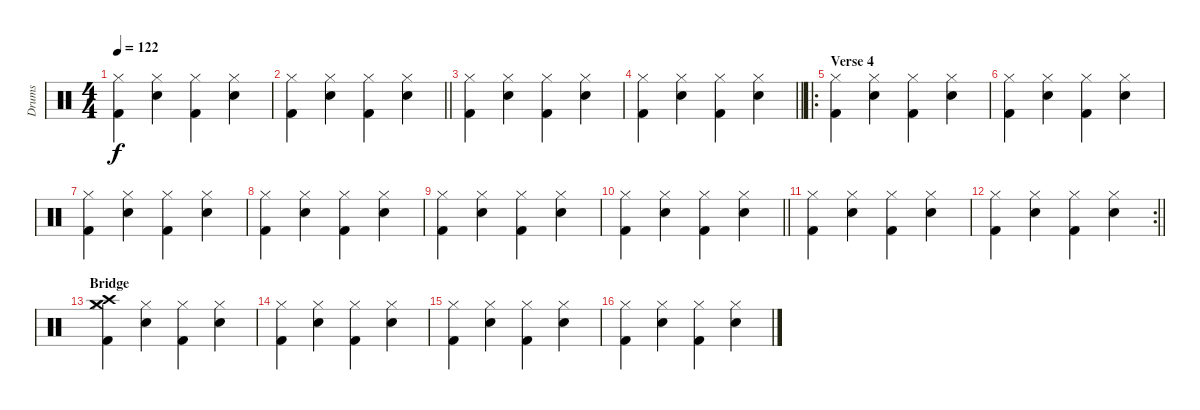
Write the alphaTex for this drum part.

\track ("Drums" "Drums") {instrument percussion}
\staff {score}
\articulation defaults
\ts (4 4)
\tempo 122
\clef neutral
\ks c
("Hi-Hat (closed)" "Kick (hit) 2").4{dy f} ("Hi-Hat (closed)" "Snare (hit) 2").4 ("Hi-Hat (closed)" "Kick (hit) 2").4 ("Hi-Hat (closed)" "Snare (hit) 2").4 |
\barLineRight lightlight
("Hi-Hat (closed)" "Kick (hit) 2").4 ("Hi-Hat (closed)" "Snare (hit) 2").4 ("Hi-Hat (closed)" "Kick (hit) 2").4 ("Hi-Hat (closed)" "Snare (hit) 2").4 |
("Hi-Hat (closed)" "Kick (hit) 2").4 ("Hi-Hat (closed)" "Snare (hit) 2").4 ("Hi-Hat (closed)" "Kick (hit) 2").4 ("Hi-Hat (closed)" "Snare (hit) 2").4 |
\barLineRight lightlight
("Hi-Hat (closed)" "Kick (hit) 2").4 ("Hi-Hat (closed)" "Snare (hit) 2").4 ("Hi-Hat (closed)" "Kick (hit) 2").4 ("Hi-Hat (closed)" "Snare (hit) 2").4 |
\ro
\section ("" "Verse 4")
("Hi-Hat (closed)" "Kick (hit) 2").4 ("Hi-Hat (closed)" "Snare (hit) 2").4 ("Hi-Hat (closed)" "Kick (hit) 2").4 ("Hi-Hat (closed)" "Snare (hit) 2").4 |
("Hi-Hat (closed)" "Kick (hit) 2").4 ("Hi-Hat (closed)" "Snare (hit) 2").4 ("Hi-Hat (closed)" "Kick (hit) 2").4 ("Hi-Hat (closed)" "Snare (hit) 2").4 |
("Hi-Hat (closed)" "Kick (hit) 2").4 ("Hi-Hat (closed)" "Snare (hit) 2").4 ("Hi-Hat (closed)" "Kick (hit) 2").4 ("Hi-Hat (closed)" "Snare (hit) 2").4 |
("Hi-Hat (closed)" "Kick (hit) 2").4 ("Hi-Hat (closed)" "Snare (hit) 2").4 ("Hi-Hat (closed)" "Kick (hit) 2").4 ("Hi-Hat (closed)" "Snare (hit) 2").4 |
("Hi-Hat (closed)" "Kick (hit) 2").4 ("Hi-Hat (closed)" "Snare (hit) 2").4 ("Hi-Hat (closed)" "Kick (hit) 2").4 ("Hi-Hat (closed)" "Snare (hit) 2").4 |
\barLineRight lightlight
("Hi-Hat (closed)" "Kick (hit) 2").4 ("Hi-Hat (closed)" "Snare (hit) 2").4 ("Hi-Hat (closed)" "Kick (hit) 2").4 ("Hi-Hat (closed)" "Snare (hit) 2").4 |
("Hi-Hat (closed)" "Kick (hit) 2").4 ("Hi-Hat (closed)" "Snare (hit) 2").4 ("Hi-Hat (closed)" "Kick (hit) 2").4 ("Hi-Hat (closed)" "Snare (hit) 2").4 |
\rc 2
\barLineRight lightlight
("Hi-Hat (closed)" "Kick (hit) 2").4 ("Hi-Hat (closed)" "Snare (hit) 2").4 ("Hi-Hat (closed)" "Kick (hit) 2").4 ("Hi-Hat (closed)" "Snare (hit) 2").4 |
\section ("" "Bridge")
("Hi-Hat (closed)" "Crash high (hit)" "Crash medium (hit)" "Kick (hit) 2").4 ("Hi-Hat (closed)" "Snare (hit) 2").4 ("Hi-Hat (closed)" "Kick (hit) 2").4 ("Hi-Hat (closed)" "Snare (hit) 2").4 |
("Hi-Hat (closed)" "Kick (hit) 2").4 ("Hi-Hat (closed)" "Snare (hit) 2").4 ("Hi-Hat (closed)" "Kick (hit) 2").4 ("Hi-Hat (closed)" "Snare (hit) 2").4 |
("Hi-Hat (closed)" "Kick (hit) 2").4 ("Hi-Hat (closed)" "Snare (hit) 2").4 ("Hi-Hat (closed)" "Kick (hit) 2").4 ("Hi-Hat (closed)" "Snare (hit) 2").4 |
("Hi-Hat (closed)" "Kick (hit) 2").4 ("Hi-Hat (closed)" "Snare (hit) 2").4 ("Hi-Hat (closed)" "Kick (hit) 2").4 ("Hi-Hat (closed)" "Snare (hit) 2").4
